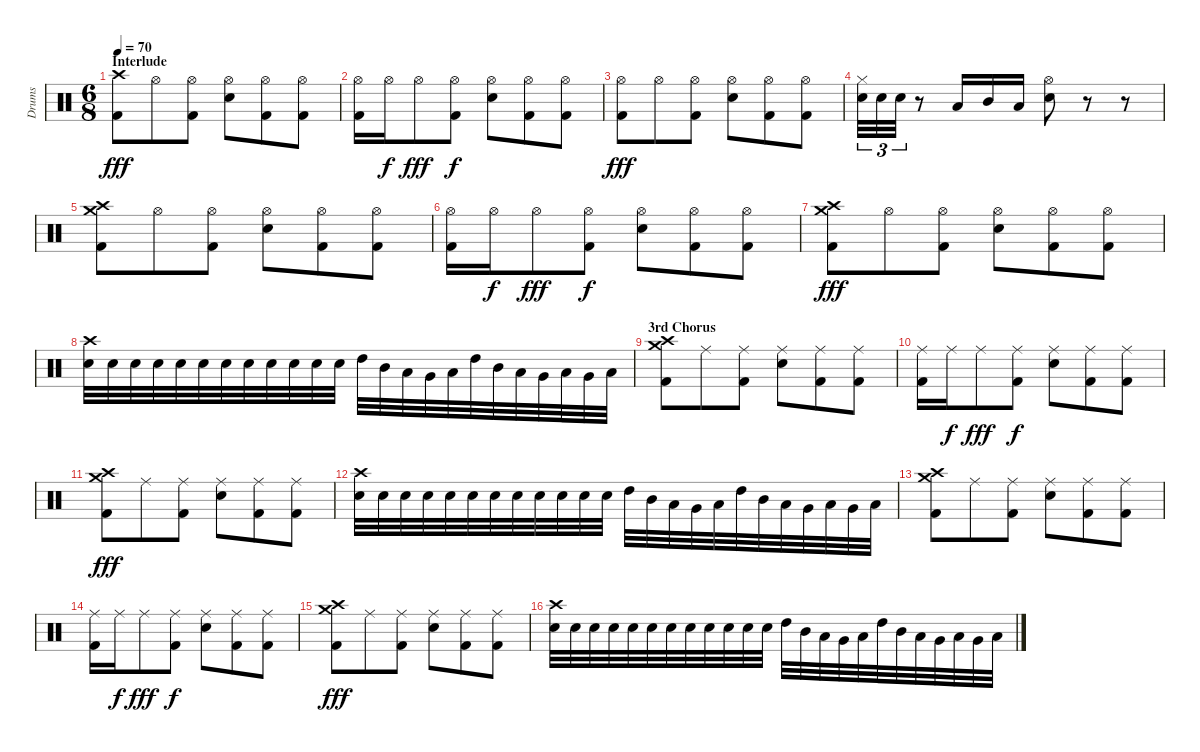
\track ("Drums" "Drums") {instrument percussion}
\staff {score}
\articulation defaults
\ts (6 8)
\section ("" "Interlude")
\tempo 70
\clef neutral
\ks c
("Crash high (hit)" "Kick (hit) 2").8{dy fff} "Hi-Hat (open)".8 ("Hi-Hat (open)" "Kick (hit) 2").8 ("Hi-Hat (open)" "Electric Snare (hit)").8 ("Hi-Hat (open)" "Kick (hit) 2").8 ("Hi-Hat (open)" "Kick (hit) 2").8 |
("Hi-Hat (open)" "Kick (hit) 2").16 "Hi-Hat (open)".16{dy f} "Hi-Hat (open)".8{dy fff} ("Hi-Hat (open)" "Kick (hit) 2").8{dy f} ("Hi-Hat (open)" "Electric Snare (hit)").8 ("Hi-Hat (open)" "Kick (hit) 2").8 ("Hi-Hat (open)" "Kick (hit) 2").8 |
("Hi-Hat (open)" "Kick (hit) 2").8{dy fff} "Hi-Hat (open)".8 ("Hi-Hat (open)" "Kick (hit) 2").8 ("Hi-Hat (open)" "Electric Snare (hit)").8 ("Hi-Hat (open)" "Kick (hit) 2").8 ("Hi-Hat (open)" "Kick (hit) 2").8 |
("Hi-Hat (closed)" "Electric Snare (hit)").32{tu (3 2)} "Electric Snare (hit)".32{tu (3 2)} "Electric Snare (hit)".32{tu (3 2)} r.8 "Low Tom (hit)".16 "Mid Tom (hit)".16 "Low Tom (hit)".16 ("Hi-Hat (open)" "Electric Snare (hit)").8 r.8 r.8 |
("Crash high (hit)" "Crash medium (hit)" "Kick (hit) 2").8 "Hi-Hat (open)".8 ("Hi-Hat (open)" "Kick (hit) 2").8 ("Hi-Hat (open)" "Electric Snare (hit)").8 ("Hi-Hat (open)" "Kick (hit) 2").8 ("Hi-Hat (open)" "Kick (hit) 2").8 |
("Hi-Hat (open)" "Kick (hit) 2").16 "Hi-Hat (open)".16{dy f} "Hi-Hat (open)".8{dy fff} ("Hi-Hat (open)" "Kick (hit) 2").8{dy f} ("Hi-Hat (open)" "Electric Snare (hit)").8 ("Hi-Hat (open)" "Kick (hit) 2").8 ("Hi-Hat (open)" "Kick (hit) 2").8 |
("Crash high (hit)" "Crash medium (hit)" "Kick (hit) 2").8{dy fff} "Hi-Hat (open)".8 ("Hi-Hat (open)" "Kick (hit) 2").8 ("Hi-Hat (open)" "Electric Snare (hit)").8 ("Hi-Hat (open)" "Kick (hit) 2").8 ("Hi-Hat (open)" "Kick (hit) 2").8 |
("Crash high (hit)" "Electric Snare (hit)").32 "Electric Snare (hit)".32 "Electric Snare (hit)".32 "Electric Snare (hit)".32 "Electric Snare (hit)".32 "Electric Snare (hit)".32 "Electric Snare (hit)".32 "Electric Snare (hit)".32 "Electric Snare (hit)".32 "Electric Snare (hit)".32 "Electric Snare (hit)".32 "Electric Snare (hit)".32 "High Tom (hit)".32 "Mid Tom (hit)".32 "Low Tom (hit)".32 "Very Low Tom (hit)".32 "Low Floor Tom (hit)".32 "High Tom (hit)".32 "Mid Tom (hit)".32 "Low Tom (hit)".32 "Very Low Tom (hit)".32 "Low Floor Tom (hit)".32 "Very Low Tom (hit)".32 "Low Tom (hit)".32 |
\section ("" "3rd Chorus")
("Crash high (hit)" "Crash medium (hit)" "Kick (hit) 2").8 "Ride (middle)".8 ("Ride (middle)" "Kick (hit) 2").8 ("Ride (middle)" "Electric Snare (hit)").8 ("Ride (middle)" "Kick (hit) 2").8 ("Ride (middle)" "Kick (hit) 2").8 |
("Ride (middle)" "Kick (hit) 2").16 "Ride (middle)".16{dy f} "Ride (middle)".8{dy fff} ("Ride (middle)" "Kick (hit) 2").8{dy f} ("Ride (middle)" "Electric Snare (hit)").8 ("Ride (middle)" "Kick (hit) 2").8 ("Ride (middle)" "Kick (hit) 2").8 |
("Crash high (hit)" "Crash medium (hit)" "Kick (hit) 2").8{dy fff} "Ride (middle)".8 ("Ride (middle)" "Kick (hit) 2").8 ("Ride (middle)" "Electric Snare (hit)").8 ("Ride (middle)" "Kick (hit) 2").8 ("Ride (middle)" "Kick (hit) 2").8 |
("Crash high (hit)" "Electric Snare (hit)").32 "Electric Snare (hit)".32 "Electric Snare (hit)".32 "Electric Snare (hit)".32 "Electric Snare (hit)".32 "Electric Snare (hit)".32 "Electric Snare (hit)".32 "Electric Snare (hit)".32 "Electric Snare (hit)".32 "Electric Snare (hit)".32 "Electric Snare (hit)".32 "Electric Snare (hit)".32 "High Tom (hit)".32 "Mid Tom (hit)".32 "Low Tom (hit)".32 "Very Low Tom (hit)".32 "Low Floor Tom (hit)".32 "High Tom (hit)".32 "Mid Tom (hit)".32 "Low Tom (hit)".32 "Very Low Tom (hit)".32 "Low Floor Tom (hit)".32 "Very Low Tom (hit)".32 "Low Tom (hit)".32 |
("Crash high (hit)" "Crash medium (hit)" "Kick (hit) 2").8 "Ride (middle)".8 ("Ride (middle)" "Kick (hit) 2").8 ("Ride (middle)" "Electric Snare (hit)").8 ("Ride (middle)" "Kick (hit) 2").8 ("Ride (middle)" "Kick (hit) 2").8 |
("Ride (middle)" "Kick (hit) 2").16 "Ride (middle)".16{dy f} "Ride (middle)".8{dy fff} ("Ride (middle)" "Kick (hit) 2").8{dy f} ("Ride (middle)" "Electric Snare (hit)").8 ("Ride (middle)" "Kick (hit) 2").8 ("Ride (middle)" "Kick (hit) 2").8 |
("Crash high (hit)" "Crash medium (hit)" "Kick (hit) 2").8{dy fff} "Ride (middle)".8 ("Ride (middle)" "Kick (hit) 2").8 ("Ride (middle)" "Electric Snare (hit)").8 ("Ride (middle)" "Kick (hit) 2").8 ("Ride (middle)" "Kick (hit) 2").8 |
("Crash high (hit)" "Electric Snare (hit)").32 "Electric Snare (hit)".32 "Electric Snare (hit)".32 "Electric Snare (hit)".32 "Electric Snare (hit)".32 "Electric Snare (hit)".32 "Electric Snare (hit)".32 "Electric Snare (hit)".32 "Electric Snare (hit)".32 "Electric Snare (hit)".32 "Electric Snare (hit)".32 "Electric Snare (hit)".32 "High Tom (hit)".32 "Mid Tom (hit)".32 "Low Tom (hit)".32 "Very Low Tom (hit)".32 "Low Floor Tom (hit)".32 "High Tom (hit)".32 "Mid Tom (hit)".32 "Low Tom (hit)".32 "Very Low Tom (hit)".32 "Low Floor Tom (hit)".32 "Very Low Tom (hit)".32 "Low Tom (hit)".32
